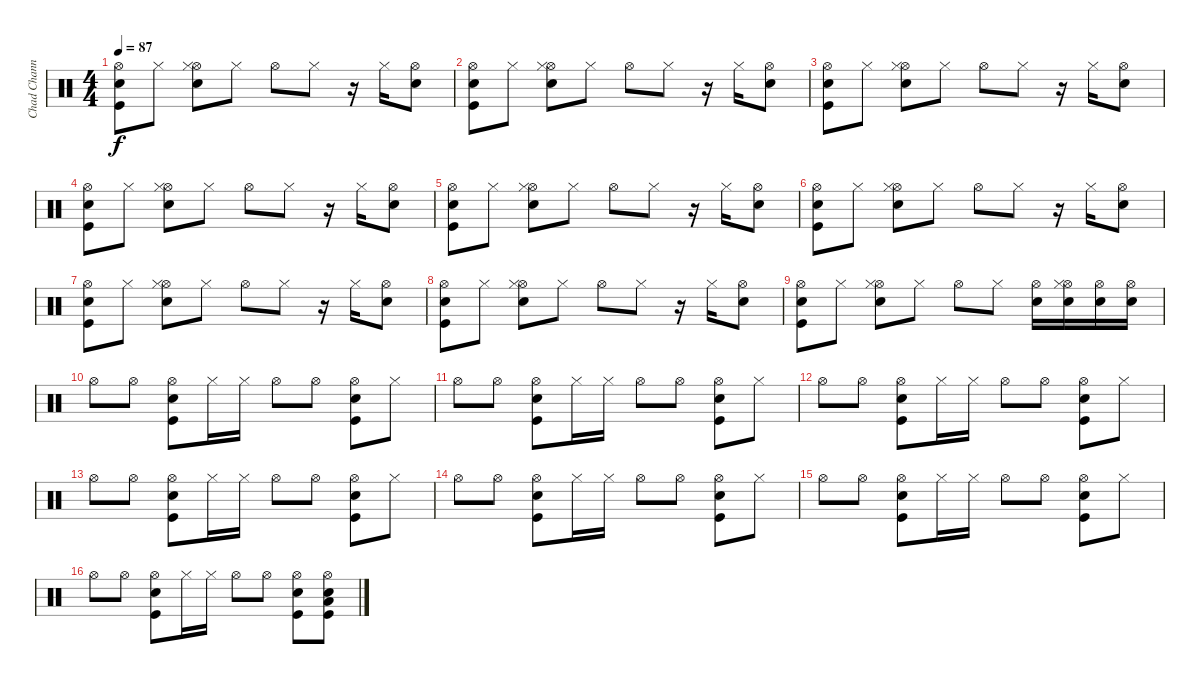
\track ("Chad Channing" "Chad Chann") {instrument percussion}
\staff {score}
\articulation defaults
\ts (4 4)
\tempo 87
\clef neutral
\ks c
("Hi-Hat (open)" "Snare (hit) 2" "Kick (hit)").8{dy f} "Hi-Hat (closed)".8 ("Hi-Hat (open)" "Snare (hit) 2" "Hi-Hat (closed)").8 "Hi-Hat (closed)".8 "Hi-Hat (open)".8 "Hi-Hat (closed)".8 r.16 "Hi-Hat (closed)".16 ("Hi-Hat (open)" "Snare (hit) 2").8 |
("Hi-Hat (open)" "Snare (hit) 2" "Kick (hit)").8 "Hi-Hat (closed)".8 ("Hi-Hat (open)" "Snare (hit) 2" "Hi-Hat (closed)").8 "Hi-Hat (closed)".8 "Hi-Hat (open)".8 "Hi-Hat (closed)".8 r.16 "Hi-Hat (closed)".16 ("Hi-Hat (open)" "Snare (hit) 2").8 |
("Hi-Hat (open)" "Snare (hit) 2" "Kick (hit)").8 "Hi-Hat (closed)".8 ("Hi-Hat (open)" "Snare (hit) 2" "Hi-Hat (closed)").8 "Hi-Hat (closed)".8 "Hi-Hat (open)".8 "Hi-Hat (closed)".8 r.16 "Hi-Hat (closed)".16 ("Hi-Hat (open)" "Snare (hit) 2").8 |
("Hi-Hat (open)" "Snare (hit) 2" "Kick (hit)").8 "Hi-Hat (closed)".8 ("Hi-Hat (open)" "Snare (hit) 2" "Hi-Hat (closed)").8 "Hi-Hat (closed)".8 "Hi-Hat (open)".8 "Hi-Hat (closed)".8 r.16 "Hi-Hat (closed)".16 ("Hi-Hat (open)" "Snare (hit) 2").8 |
("Hi-Hat (open)" "Snare (hit) 2" "Kick (hit)").8 "Hi-Hat (closed)".8 ("Hi-Hat (open)" "Snare (hit) 2" "Hi-Hat (closed)").8 "Hi-Hat (closed)".8 "Hi-Hat (open)".8 "Hi-Hat (closed)".8 r.16 "Hi-Hat (closed)".16 ("Hi-Hat (open)" "Snare (hit) 2").8 |
("Hi-Hat (open)" "Snare (hit) 2" "Kick (hit)").8 "Hi-Hat (closed)".8 ("Hi-Hat (open)" "Snare (hit) 2" "Hi-Hat (closed)").8 "Hi-Hat (closed)".8 "Hi-Hat (open)".8 "Hi-Hat (closed)".8 r.16 "Hi-Hat (closed)".16 ("Hi-Hat (open)" "Snare (hit) 2").8 |
("Hi-Hat (open)" "Snare (hit) 2" "Kick (hit)").8 "Hi-Hat (closed)".8 ("Hi-Hat (open)" "Snare (hit) 2" "Hi-Hat (closed)").8 "Hi-Hat (closed)".8 "Hi-Hat (open)".8 "Hi-Hat (closed)".8 r.16 "Hi-Hat (closed)".16 ("Hi-Hat (open)" "Snare (hit) 2").8 |
("Hi-Hat (open)" "Snare (hit) 2" "Kick (hit)").8 "Hi-Hat (closed)".8 ("Hi-Hat (open)" "Snare (hit) 2" "Hi-Hat (closed)").8 "Hi-Hat (closed)".8 "Hi-Hat (open)".8 "Hi-Hat (closed)".8 r.16 "Hi-Hat (closed)".16 ("Hi-Hat (open)" "Snare (hit) 2").8 |
("Hi-Hat (open)" "Snare (hit) 2" "Kick (hit)").8 "Hi-Hat (closed)".8 ("Hi-Hat (open)" "Snare (hit) 2" "Hi-Hat (closed)").8 "Hi-Hat (closed)".8 "Hi-Hat (open)".8 "Hi-Hat (closed)".8 ("Snare (hit) 2" "Hi-Hat (open)").16 ("Snare (hit) 2" "Hi-Hat (open)" "Hi-Hat (closed)").16 ("Hi-Hat (open)" "Snare (hit) 2").16 ("Snare (hit) 2" "Hi-Hat (open)").16 |
"Hi-Hat (open)".8 "Hi-Hat (open)".8 ("Snare (hit) 2" "Hi-Hat (open)" "Kick (hit)").8 "Hi-Hat (closed)".16 "Hi-Hat (closed)".16 "Hi-Hat (open)".8 "Hi-Hat (open)".8 ("Snare (hit) 2" "Hi-Hat (open)" "Kick (hit)").8 "Hi-Hat (closed)".8 |
"Hi-Hat (open)".8 "Hi-Hat (open)".8 ("Snare (hit) 2" "Hi-Hat (open)" "Kick (hit)").8 "Hi-Hat (closed)".16 "Hi-Hat (closed)".16 "Hi-Hat (open)".8 "Hi-Hat (open)".8 ("Snare (hit) 2" "Hi-Hat (open)" "Kick (hit)").8 "Hi-Hat (closed)".8 |
"Hi-Hat (open)".8 "Hi-Hat (open)".8 ("Snare (hit) 2" "Hi-Hat (open)" "Kick (hit)").8 "Hi-Hat (closed)".16 "Hi-Hat (closed)".16 "Hi-Hat (open)".8 "Hi-Hat (open)".8 ("Snare (hit) 2" "Hi-Hat (open)" "Kick (hit)").8 "Hi-Hat (closed)".8 |
"Hi-Hat (open)".8 "Hi-Hat (open)".8 ("Snare (hit) 2" "Hi-Hat (open)" "Kick (hit)").8 "Hi-Hat (closed)".16 "Hi-Hat (closed)".16 "Hi-Hat (open)".8 "Hi-Hat (open)".8 ("Snare (hit) 2" "Hi-Hat (open)" "Kick (hit)").8 "Hi-Hat (closed)".8 |
"Hi-Hat (open)".8 "Hi-Hat (open)".8 ("Snare (hit) 2" "Hi-Hat (open)" "Kick (hit)").8 "Hi-Hat (closed)".16 "Hi-Hat (closed)".16 "Hi-Hat (open)".8 "Hi-Hat (open)".8 ("Snare (hit) 2" "Hi-Hat (open)" "Kick (hit)").8 "Hi-Hat (closed)".8 |
"Hi-Hat (open)".8 "Hi-Hat (open)".8 ("Snare (hit) 2" "Hi-Hat (open)" "Kick (hit)").8 "Hi-Hat (closed)".16 "Hi-Hat (closed)".16 "Hi-Hat (open)".8 "Hi-Hat (open)".8 ("Snare (hit) 2" "Hi-Hat (open)" "Kick (hit)").8 "Hi-Hat (closed)".8 |
"Hi-Hat (open)".8 "Hi-Hat (open)".8 ("Snare (hit) 2" "Hi-Hat (open)" "Kick (hit)").8 "Hi-Hat (closed)".16 "Hi-Hat (closed)".16 "Hi-Hat (open)".8 "Hi-Hat (open)".8 ("Snare (hit) 2" "Hi-Hat (open)" "Kick (hit)").8 ("Snare (hit) 2" "Hi-Hat (open)" "Kick (hit)" "Low Floor Tom (hit)").8
